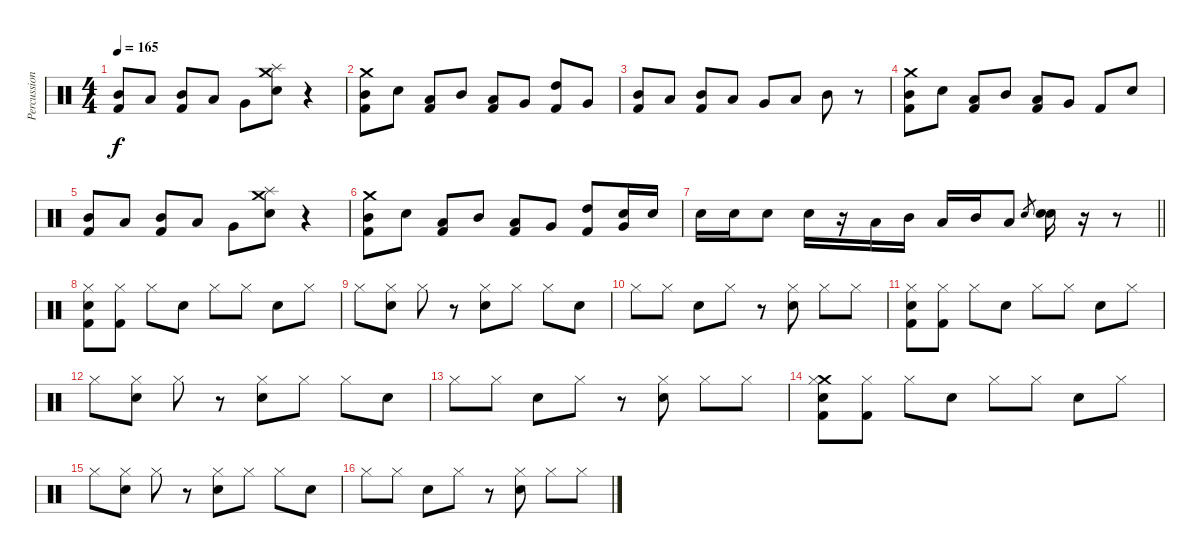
\track ("Percussion" "Percussion") {instrument percussion}
\staff {score}
\articulation defaults
\ts (4 4)
\tempo 165
\clef neutral
\ks c
("Mid Tom (hit)" "Kick (hit) 2").8{dy f} "Low Tom (hit)".8 ("Mid Tom (hit)" "Kick (hit) 2").8 "Low Tom (hit)".8 "Very Low Tom (hit)".8 ("Splash (hit)" "Crash medium (hit)" "Snare (hit) 2").8 r.4 |
("Crash medium (hit)" "Mid Tom (hit)" "Kick (hit) 2").8 "Snare (hit) 2".8 ("Low Tom (hit)" "Kick (hit) 2").8 "Mid Tom (hit)".8 ("Low Tom (hit)" "Kick (hit) 2").8 "Very Low Tom (hit)".8 ("High Tom (hit)" "Kick (hit) 2").8 "Very Low Tom (hit)".8 |
("Mid Tom (hit)" "Kick (hit) 2").8 "Low Tom (hit)".8 ("Mid Tom (hit)" "Kick (hit) 2").8 "Low Tom (hit)".8 "Very Low Tom (hit)".8 "Low Tom (hit)".8 "Mid Tom (hit)".8 r.8 |
("Crash medium (hit)" "Mid Tom (hit)" "Kick (hit) 2").8 "Snare (hit) 2".8 ("Low Tom (hit)" "Kick (hit) 2").8 "Mid Tom (hit)".8 ("Low Tom (hit)" "Kick (hit) 2").8 "Very Low Tom (hit)".8 "Kick (hit) 2".8 "Snare (hit) 2".8 |
("Mid Tom (hit)" "Kick (hit) 2").8 "Low Tom (hit)".8 ("Mid Tom (hit)" "Kick (hit) 2").8 "Low Tom (hit)".8 "Very Low Tom (hit)".8 ("Splash (hit)" "Crash medium (hit)" "Snare (hit) 2").8 r.4 |
("Crash medium (hit)" "Mid Tom (hit)" "Kick (hit) 2").8 "Snare (hit) 2".8 ("Low Tom (hit)" "Kick (hit) 2").8 "Mid Tom (hit)".8 ("Low Tom (hit)" "Kick (hit) 2").8 "Very Low Tom (hit)".8 ("High Tom (hit)" "Kick (hit) 2").8 ("Very Low Tom (hit)" "Snare (hit) 2").16 "Snare (hit) 2".16 |
\barLineRight lightlight "Snare (hit) 2".16 "Snare (hit) 2".16 "Snare (hit) 2".8 "Snare (hit) 2".16
r.16 "Low Tom (hit)".16 "Mid Tom (hit)".16 "Low Tom (hit)".16 "Mid Tom (hit)".16 "Low Tom (hit)".8 "Snare (hit) 2".8{gr} ("Snare (hit) 2" "Snare (hit) 2").16 r.16 r.8 |
("Hi-Hat (closed)" "Snare (hit) 2" "Kick (hit) 2").8 ("Hi-Hat (closed)" "Kick (hit) 2").8 "Hi-Hat (closed)".8 "Snare (hit) 2".8 "Hi-Hat (closed)".8 "Hi-Hat (closed)".8 "Snare (hit) 2".8 "Hi-Hat (closed)".8 |
"Hi-Hat (closed)".8 ("Hi-Hat (closed)" "Snare (hit) 2").8 "Hi-Hat (closed)".8 r.8 ("Hi-Hat (closed)" "Snare (hit) 2").8 "Hi-Hat (closed)".8 "Hi-Hat (closed)".8 "Snare (hit) 2".8 |
"Hi-Hat (closed)".8 "Hi-Hat (closed)".8 "Snare (hit) 2".8 "Hi-Hat (closed)".8 r.8 ("Hi-Hat (closed)" "Snare (hit) 2").8 "Hi-Hat (closed)".8 "Hi-Hat (closed)".8 |
("Hi-Hat (closed)" "Snare (hit) 2" "Kick (hit) 2").8 ("Hi-Hat (closed)" "Kick (hit) 2").8 "Hi-Hat (closed)".8 "Snare (hit) 2".8 "Hi-Hat (closed)".8 "Hi-Hat (closed)".8 "Snare (hit) 2".8 "Hi-Hat (closed)".8 |
"Hi-Hat (closed)".8 ("Hi-Hat (closed)" "Snare (hit) 2").8 "Hi-Hat (closed)".8 r.8 ("Hi-Hat (closed)" "Snare (hit) 2").8 "Hi-Hat (closed)".8 "Hi-Hat (closed)".8 "Snare (hit) 2".8 |
"Hi-Hat (closed)".8 "Hi-Hat (closed)".8 "Snare (hit) 2".8 "Hi-Hat (closed)".8 r.8 ("Hi-Hat (closed)" "Snare (hit) 2").8 "Hi-Hat (closed)".8 "Hi-Hat (closed)".8 |
("Crash medium (hit)" "Hi-Hat (closed)" "Snare (hit) 2" "Kick (hit) 2").8 ("Hi-Hat (closed)" "Kick (hit) 2").8 "Hi-Hat (closed)".8 "Snare (hit) 2".8 "Hi-Hat (closed)".8 "Hi-Hat (closed)".8 "Snare (hit) 2".8 "Hi-Hat (closed)".8 |
"Hi-Hat (closed)".8 ("Hi-Hat (closed)" "Snare (hit) 2").8 "Hi-Hat (closed)".8 r.8 ("Hi-Hat (closed)" "Snare (hit) 2").8 "Hi-Hat (closed)".8 "Hi-Hat (closed)".8 "Snare (hit) 2".8 |
"Hi-Hat (closed)".8 "Hi-Hat (closed)".8 "Snare (hit) 2".8 "Hi-Hat (closed)".8 r.8 ("Hi-Hat (closed)" "Snare (hit) 2").8 "Hi-Hat (closed)".8 "Hi-Hat (closed)".8
